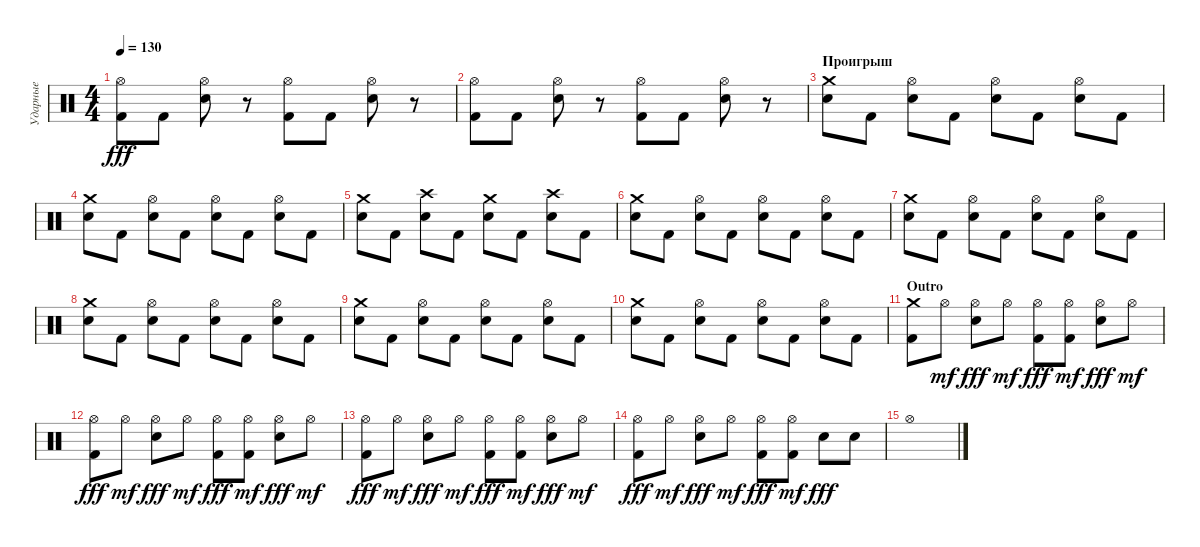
\track ("Ударные" "Ударные") {instrument percussion}
\staff {score}
\articulation defaults
\ts (4 4)
\tempo 130
\clef neutral
\ks c
("Kick (hit) 2" "Hi-Hat (open)").8{dy fff} "Kick (hit) 2".8 ("Snare (hit) 2" "Hi-Hat (open)").8 r.8 ("Kick (hit) 2" "Hi-Hat (open)").8 "Kick (hit) 2".8 ("Snare (hit) 2" "Hi-Hat (open)").8 r.8 |
("Kick (hit) 2" "Hi-Hat (open)").8 "Kick (hit) 2".8 ("Snare (hit) 2" "Hi-Hat (open)").8 r.8 ("Kick (hit) 2" "Hi-Hat (open)").8 "Kick (hit) 2".8 ("Snare (hit) 2" "Hi-Hat (open)").8 r.8 |
\section ("" "Проигрыш")
("Snare (hit) 2" "Crash medium (hit)").8 "Kick (hit) 2".8 ("Snare (hit) 2" "Hi-Hat (open)").8 "Kick (hit) 2".8 ("Snare (hit) 2" "Hi-Hat (open)").8 "Kick (hit) 2".8 ("Snare (hit) 2" "Hi-Hat (open)").8 "Kick (hit) 2".8 |
("Snare (hit) 2" "Crash medium (hit)").8 "Kick (hit) 2".8 ("Snare (hit) 2" "Hi-Hat (open)").8 "Kick (hit) 2".8 ("Snare (hit) 2" "Hi-Hat (open)").8 "Kick (hit) 2".8 ("Snare (hit) 2" "Hi-Hat (open)").8 "Kick (hit) 2".8 |
("Snare (hit) 2" "Crash medium (hit)").8 "Kick (hit) 2".8 ("Snare (hit) 2" "Crash high (hit)").8 "Kick (hit) 2".8 ("Snare (hit) 2" "Crash medium (hit)").8 "Kick (hit) 2".8 ("Snare (hit) 2" "Crash high (hit)").8 "Kick (hit) 2".8 |
("Snare (hit) 2" "Crash medium (hit)").8 "Kick (hit) 2".8 ("Snare (hit) 2" "Hi-Hat (open)").8 "Kick (hit) 2".8 ("Snare (hit) 2" "Hi-Hat (open)").8 "Kick (hit) 2".8 ("Snare (hit) 2" "Hi-Hat (open)").8 "Kick (hit) 2".8 |
("Snare (hit) 2" "Crash medium (hit)").8 "Kick (hit) 2".8 ("Snare (hit) 2" "Hi-Hat (open)").8 "Kick (hit) 2".8 ("Snare (hit) 2" "Hi-Hat (open)").8 "Kick (hit) 2".8 ("Snare (hit) 2" "Hi-Hat (open)").8 "Kick (hit) 2".8 |
("Snare (hit) 2" "Crash medium (hit)").8 "Kick (hit) 2".8 ("Snare (hit) 2" "Hi-Hat (open)").8 "Kick (hit) 2".8 ("Snare (hit) 2" "Hi-Hat (open)").8 "Kick (hit) 2".8 ("Snare (hit) 2" "Hi-Hat (open)").8 "Kick (hit) 2".8 |
("Snare (hit) 2" "Crash medium (hit)").8 "Kick (hit) 2".8 ("Snare (hit) 2" "Hi-Hat (open)").8 "Kick (hit) 2".8 ("Snare (hit) 2" "Hi-Hat (open)").8 "Kick (hit) 2".8 ("Snare (hit) 2" "Hi-Hat (open)").8 "Kick (hit) 2".8 |
("Snare (hit) 2" "Crash medium (hit)").8 "Kick (hit) 2".8 ("Snare (hit) 2" "Hi-Hat (open)").8 "Kick (hit) 2".8 ("Snare (hit) 2" "Hi-Hat (open)").8 "Kick (hit) 2".8 ("Snare (hit) 2" "Hi-Hat (open)").8 "Kick (hit) 2".8 |
\section ("" "Outro")
("Kick (hit) 2" "Crash medium (hit)").8 "Hi-Hat (open)".8{dy mf} ("Snare (hit) 2" "Hi-Hat (open)").8{dy fff} "Hi-Hat (open)".8{dy mf} ("Kick (hit) 2" "Hi-Hat (open)").8{dy fff} ("Kick (hit) 2" "Hi-Hat (open)").8{dy mf} ("Snare (hit) 2" "Hi-Hat (open)").8{dy fff} "Hi-Hat (open)".8{dy mf} |
("Kick (hit) 2" "Hi-Hat (open)").8{dy fff} "Hi-Hat (open)".8{dy mf} ("Snare (hit) 2" "Hi-Hat (open)").8{dy fff} "Hi-Hat (open)".8{dy mf} ("Kick (hit) 2" "Hi-Hat (open)").8{dy fff} ("Kick (hit) 2" "Hi-Hat (open)").8{dy mf} ("Snare (hit) 2" "Hi-Hat (open)").8{dy fff} "Hi-Hat (open)".8{dy mf} |
("Kick (hit) 2" "Hi-Hat (open)").8{dy fff} "Hi-Hat (open)".8{dy mf} ("Snare (hit) 2" "Hi-Hat (open)").8{dy fff} "Hi-Hat (open)".8{dy mf} ("Kick (hit) 2" "Hi-Hat (open)").8{dy fff} ("Kick (hit) 2" "Hi-Hat (open)").8{dy mf} ("Snare (hit) 2" "Hi-Hat (open)").8{dy fff} "Hi-Hat (open)".8{dy mf} |
("Kick (hit) 2" "Hi-Hat (open)").8{dy fff} "Hi-Hat (open)".8{dy mf} ("Snare (hit) 2" "Hi-Hat (open)").8{dy fff} "Hi-Hat (open)".8{dy mf} ("Kick (hit) 2" "Hi-Hat (open)").8{dy fff} ("Kick (hit) 2" "Hi-Hat (open)").8{dy mf} "Snare (hit) 2".8{dy fff} "Snare (hit) 2".8 |
"Hi-Hat (open)".1
